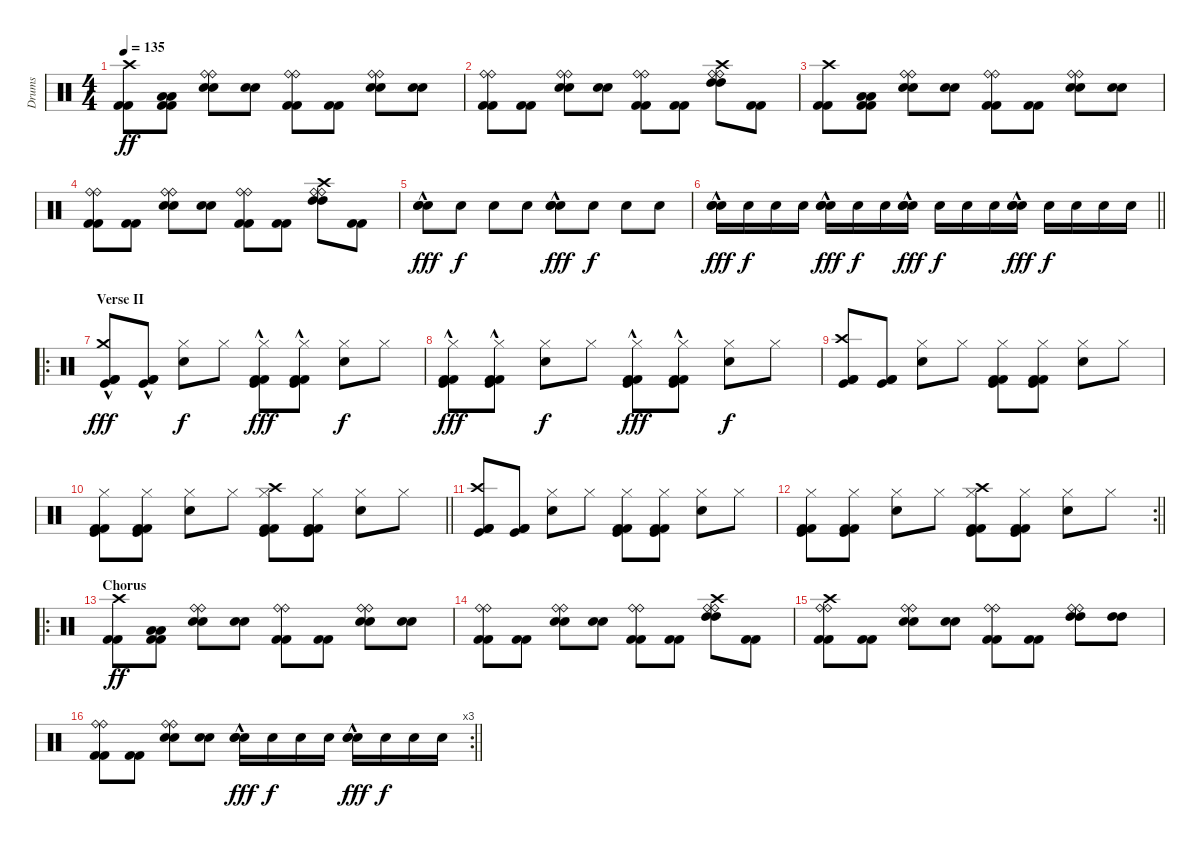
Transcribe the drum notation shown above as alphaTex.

\track ("Drums" "Drums") {instrument percussion}
\staff {score}
\articulation defaults
\ts (4 4)
\section ("" "")
\tempo 135
\clef neutral
\ks c
("Kick (hit) 2" "Kick (hit) 2" "Crash high (hit)").8{dy ff} ("Kick (hit) 2" "Kick (hit) 2" "Low Tom (hit)" "Low Tom (hit)").8 ("Electric Snare (hit)" "Electric Snare (hit)" "Ride (bell)" "Ride (bell)").8 ("Electric Snare (hit)" "Electric Snare (hit)").8 ("Kick (hit) 2" "Kick (hit) 2" "Ride (bell)" "Ride (bell)").8 ("Kick (hit) 2" "Kick (hit) 2").8 ("Electric Snare (hit)" "Electric Snare (hit)" "Ride (bell)" "Ride (bell)").8 ("Electric Snare (hit)" "Electric Snare (hit)").8 |
("Kick (hit) 2" "Kick (hit) 2" "Ride (bell)" "Ride (bell)").8 ("Kick (hit) 2" "Kick (hit) 2").8 ("Electric Snare (hit)" "Electric Snare (hit)" "Ride (bell)" "Ride (bell)").8 ("Electric Snare (hit)" "Electric Snare (hit)").8 ("Kick (hit) 2" "Kick (hit) 2" "Ride (bell)" "Ride (bell)").8 ("Kick (hit) 2" "Kick (hit) 2").8 ("High Tom (hit)" "High Tom (hit)" "Ride (bell)" "Crash high (hit)" "Ride (bell)").8 ("Kick (hit) 2" "Kick (hit) 2").8 |
("Kick (hit) 2" "Kick (hit) 2" "Crash high (hit)").8 ("Kick (hit) 2" "Kick (hit) 2" "Low Tom (hit)" "Low Tom (hit)").8 ("Electric Snare (hit)" "Electric Snare (hit)" "Ride (bell)" "Ride (bell)").8 ("Electric Snare (hit)" "Electric Snare (hit)").8 ("Kick (hit) 2" "Kick (hit) 2" "Ride (bell)" "Ride (bell)").8 ("Kick (hit) 2" "Kick (hit) 2").8 ("Electric Snare (hit)" "Electric Snare (hit)" "Ride (bell)" "Ride (bell)").8 ("Electric Snare (hit)" "Electric Snare (hit)").8 |
("Kick (hit) 2" "Kick (hit) 2" "Ride (bell)" "Ride (bell)").8 ("Kick (hit) 2" "Kick (hit) 2").8 ("Electric Snare (hit)" "Electric Snare (hit)" "Ride (bell)" "Ride (bell)").8 ("Electric Snare (hit)" "Electric Snare (hit)").8 ("Kick (hit) 2" "Kick (hit) 2" "Ride (bell)" "Ride (bell)").8 ("Kick (hit) 2" "Kick (hit) 2").8 ("High Tom (hit)" "High Tom (hit)" "Ride (bell)" "Crash high (hit)" "Ride (bell)").8 ("Kick (hit) 2" "Kick (hit) 2").8 |
("Snare (hit) 2"{hac} "Electric Snare (hit)"{hac} "Snare (hit) 2"{hac}).8{dy fff} "Electric Snare (hit)".8{dy f} "Electric Snare (hit)".8 "Electric Snare (hit)".8 ("Snare (hit) 2"{hac} "Electric Snare (hit)"{hac} "Snare (hit) 2"{hac}).8{dy fff} "Electric Snare (hit)".8{dy f} "Electric Snare (hit)".8 "Electric Snare (hit)".8 |
\barLineRight lightlight
("Snare (hit) 2"{hac} "Electric Snare (hit)"{hac} "Snare (hit) 2"{hac}).16{dy fff} "Electric Snare (hit)".16{dy f} "Electric Snare (hit)".16 "Electric Snare (hit)".16 ("Snare (hit) 2"{hac} "Electric Snare (hit)"{hac} "Snare (hit) 2"{hac}).16{dy fff} "Electric Snare (hit)".16{dy f} "Electric Snare (hit)".16 ("Snare (hit) 2"{hac} "Electric Snare (hit)"{hac} "Snare (hit) 2"{hac}).16{dy fff} "Electric Snare (hit)".16{dy f} "Electric Snare (hit)".16 "Electric Snare (hit)".16 ("Snare (hit) 2"{hac} "Electric Snare (hit)"{hac} "Snare (hit) 2"{hac}).16{dy fff} "Electric Snare (hit)".16{dy f} "Electric Snare (hit)".16 "Electric Snare (hit)".16 "Electric Snare (hit)".16 |
\ro
\section ("" "Verse II")
("Kick (hit) 2" "Crash medium (hit)" "Kick (hit) 2"{hac} "Kick (hit)"{hac}).8{dy fff} ("Kick (hit) 2" "Kick (hit) 2"{hac} "Kick (hit)"{hac}).8 ("Hi-Hat (closed)" "Electric Snare (hit)").8{dy f} "Hi-Hat (closed)".8 ("Kick (hit) 2" "Hi-Hat (closed)" "Kick (hit)"{hac} "Kick (hit) 2"{hac}).8{dy fff} ("Kick (hit) 2" "Hi-Hat (closed)" "Kick (hit)"{hac} "Kick (hit) 2"{hac}).8 ("Hi-Hat (closed)" "Electric Snare (hit)").8{dy f} "Hi-Hat (closed)".8 |
("Kick (hit) 2" "Hi-Hat (closed)" "Kick (hit)"{hac} "Kick (hit) 2"{hac}).8{dy fff} ("Kick (hit) 2" "Hi-Hat (closed)" "Kick (hit)"{hac} "Kick (hit) 2"{hac}).8 ("Hi-Hat (closed)" "Electric Snare (hit)").8{dy f} "Hi-Hat (closed)".8 ("Kick (hit) 2" "Hi-Hat (closed)" "Kick (hit)"{hac} "Kick (hit) 2"{hac}).8{dy fff} ("Kick (hit) 2" "Hi-Hat (closed)" "Kick (hit)"{hac} "Kick (hit) 2"{hac}).8 ("Hi-Hat (closed)" "Electric Snare (hit)").8{dy f} "Hi-Hat (closed)".8 |
("Kick (hit) 2" "Crash high (hit)" "Kick (hit) 2" "Kick (hit)").8 ("Kick (hit) 2" "Kick (hit) 2" "Kick (hit)").8 ("Hi-Hat (closed)" "Electric Snare (hit)").8 "Hi-Hat (closed)".8 ("Kick (hit) 2" "Hi-Hat (closed)" "Kick (hit) 2" "Kick (hit)").8 ("Kick (hit) 2" "Hi-Hat (closed)" "Kick (hit) 2" "Kick (hit)").8 ("Hi-Hat (closed)" "Electric Snare (hit)").8 "Hi-Hat (closed)".8 |
\barLineRight lightlight
("Kick (hit) 2" "Hi-Hat (closed)" "Kick (hit) 2" "Kick (hit)").8 ("Kick (hit) 2" "Hi-Hat (closed)" "Kick (hit) 2" "Kick (hit)").8 ("Hi-Hat (closed)" "Electric Snare (hit)").8 "Hi-Hat (closed)".8 ("Crash high (hit)" "Kick (hit) 2" "Hi-Hat (closed)" "Kick (hit) 2" "Kick (hit)").8 ("Kick (hit) 2" "Hi-Hat (closed)" "Kick (hit) 2" "Kick (hit)").8 ("Hi-Hat (closed)" "Electric Snare (hit)").8 "Hi-Hat (closed)".8 |
("Kick (hit) 2" "Crash high (hit)" "Kick (hit) 2" "Kick (hit)").8 ("Kick (hit) 2" "Kick (hit) 2" "Kick (hit)").8 ("Hi-Hat (closed)" "Electric Snare (hit)").8 "Hi-Hat (closed)".8 ("Kick (hit) 2" "Hi-Hat (closed)" "Kick (hit) 2" "Kick (hit)").8 ("Kick (hit) 2" "Hi-Hat (closed)" "Kick (hit) 2" "Kick (hit)").8 ("Hi-Hat (closed)" "Electric Snare (hit)").8 "Hi-Hat (closed)".8 |
\rc 2
\barLineRight lightlight
("Kick (hit) 2" "Hi-Hat (closed)" "Kick (hit) 2" "Kick (hit)").8 ("Kick (hit) 2" "Hi-Hat (closed)" "Kick (hit) 2" "Kick (hit)").8 ("Hi-Hat (closed)" "Electric Snare (hit)").8 "Hi-Hat (closed)".8 ("Crash high (hit)" "Kick (hit) 2" "Hi-Hat (closed)" "Kick (hit) 2" "Kick (hit)").8 ("Kick (hit) 2" "Hi-Hat (closed)" "Kick (hit) 2" "Kick (hit)").8 ("Hi-Hat (closed)" "Electric Snare (hit)").8 "Hi-Hat (closed)".8 |
\ro
\section ("" "Chorus")
("Kick (hit) 2" "Kick (hit) 2" "Crash high (hit)").8{dy ff} ("Kick (hit) 2" "Kick (hit) 2" "Low Tom (hit)" "Low Tom (hit)").8 ("Electric Snare (hit)" "Electric Snare (hit)" "Ride (bell)" "Ride (bell)").8 ("Electric Snare (hit)" "Electric Snare (hit)").8 ("Kick (hit) 2" "Kick (hit) 2" "Ride (bell)" "Ride (bell)").8 ("Kick (hit) 2" "Kick (hit) 2").8 ("Electric Snare (hit)" "Electric Snare (hit)" "Ride (bell)" "Ride (bell)").8 ("Electric Snare (hit)" "Electric Snare (hit)").8 |
("Kick (hit) 2" "Kick (hit) 2" "Ride (bell)" "Ride (bell)").8 ("Kick (hit) 2" "Kick (hit) 2").8 ("Electric Snare (hit)" "Electric Snare (hit)" "Ride (bell)" "Ride (bell)").8 ("Electric Snare (hit)" "Electric Snare (hit)").8 ("Kick (hit) 2" "Kick (hit) 2" "Ride (bell)" "Ride (bell)").8 ("Kick (hit) 2" "Kick (hit) 2").8 ("High Tom (hit)" "High Tom (hit)" "Ride (bell)" "Crash high (hit)" "Ride (bell)").8 ("Kick (hit) 2" "Kick (hit) 2").8 |
("Kick (hit) 2" "Kick (hit) 2" "Ride (bell)" "Ride (bell)" "Crash high (hit)").8 ("Kick (hit) 2" "Kick (hit) 2").8 ("Electric Snare (hit)" "Electric Snare (hit)" "Ride (bell)" "Ride (bell)").8 ("Electric Snare (hit)" "Electric Snare (hit)").8 ("Kick (hit) 2" "Kick (hit) 2" "Ride (bell)" "Ride (bell)").8 ("Kick (hit) 2" "Kick (hit) 2").8 ("High Tom (hit)" "High Tom (hit)" "Ride (bell)" "Ride (bell)").8 ("High Tom (hit)" "High Tom (hit)").8 |
\rc 3
\barLineRight lightlight
("Kick (hit) 2" "Kick (hit) 2" "Ride (bell)" "Ride (bell)").8 ("Kick (hit) 2" "Kick (hit) 2").8 ("Electric Snare (hit)" "Electric Snare (hit)" "Ride (bell)" "Ride (bell)").8 ("Electric Snare (hit)" "Electric Snare (hit)").8 ("Snare (hit) 2"{hac} "Electric Snare (hit)"{hac} "Snare (hit) 2"{hac}).16{dy fff} "Electric Snare (hit)".16{dy f} "Electric Snare (hit)".16 "Electric Snare (hit)".16 ("Snare (hit) 2"{hac} "Electric Snare (hit)"{hac} "Snare (hit) 2"{hac}).16{dy fff} "Electric Snare (hit)".16{dy f} "Electric Snare (hit)".16 "Electric Snare (hit)".16
